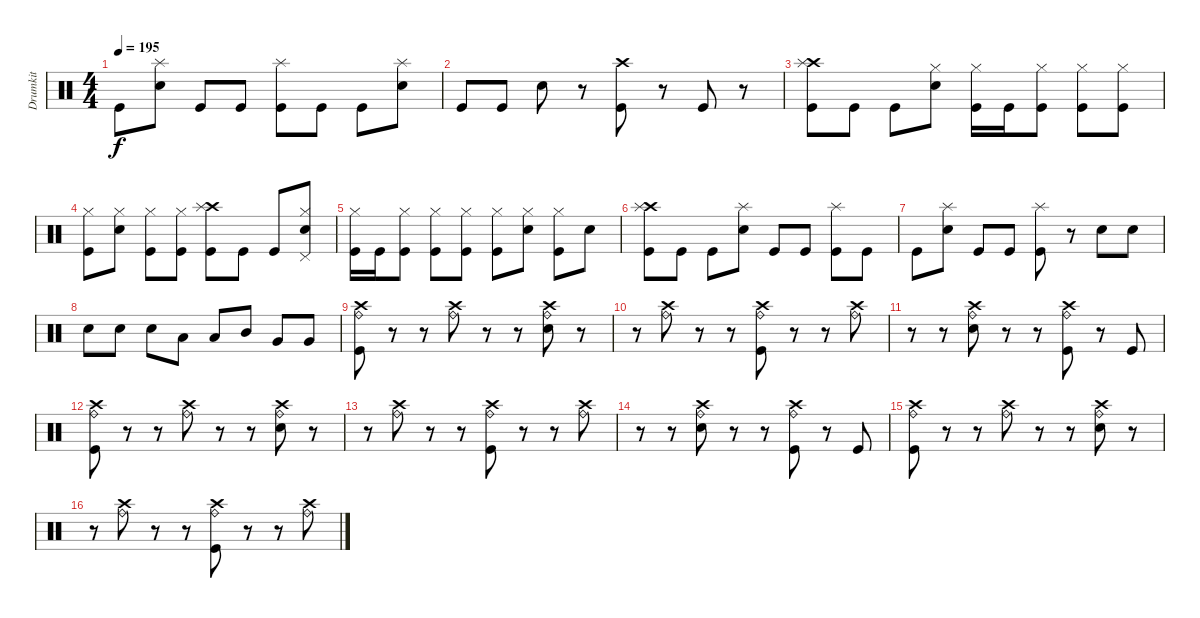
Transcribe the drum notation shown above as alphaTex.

\track ("Drumkit" "Drumkit") {instrument percussion}
\staff {score}
\articulation defaults
\ts (4 4)
\tempo 195
\clef neutral
\ks c "Kick (hit)".8{dy f}
("Snare (hit) 2" "Splash (hit)").8 "Kick (hit)".8 "Kick (hit)".8 ("Kick (hit)" "Splash (hit)").8 "Kick (hit)".8 "Kick (hit)".8 ("Snare (hit) 2" "Splash (hit)").8 |
"Kick (hit)".8 "Kick (hit)".8 "Snare (hit) 2".8 r.8 ("Kick (hit)" "Crash high (hit)").8 r.8 "Kick (hit)".8 r.8 |
("Kick (hit)" "Crash high (hit)" "Splash (hit)").8 "Kick (hit)".8 "Kick (hit)".8 ("Snare (hit) 2" "Hi-Hat (closed)").8 ("Kick (hit)" "Hi-Hat (closed)").16 "Kick (hit)".16 ("Kick (hit)" "Hi-Hat (closed)").8 ("Kick (hit)" "Hi-Hat (closed)").8 ("Kick (hit)" "Hi-Hat (closed)").8 |
("Kick (hit)" "Hi-Hat (closed)").8 ("Snare (hit) 2" "Hi-Hat (closed)").8 ("Kick (hit)" "Hi-Hat (closed)").8 ("Kick (hit)" "Hi-Hat (closed)").8 ("Kick (hit)" "Crash high (hit)" "Splash (hit)").8 "Kick (hit)".8 "Kick (hit)".8 ("Snare (hit) 2" "Pedal Hi-Hat (hit)" "Hi-Hat (closed)").8 |
("Kick (hit)" "Hi-Hat (closed)").16 "Kick (hit)".16 ("Kick (hit)" "Hi-Hat (closed)").8 ("Kick (hit)" "Hi-Hat (closed)").8 ("Kick (hit)" "Hi-Hat (closed)").8 ("Kick (hit)" "Hi-Hat (closed)").8 ("Snare (hit) 2" "Hi-Hat (closed)").8 ("Kick (hit)" "Hi-Hat (closed)").8 "Snare (hit) 2".8 |
("Kick (hit)" "Crash high (hit)" "Splash (hit)").8 "Kick (hit)".8 "Kick (hit)".8 ("Snare (hit) 2" "Splash (hit)").8 "Kick (hit)".8 "Kick (hit)".8 ("Kick (hit)" "Splash (hit)").8 "Kick (hit)".8 |
"Kick (hit)".8 ("Snare (hit) 2" "Splash (hit)").8 "Kick (hit)".8 "Kick (hit)".8 ("Kick (hit)" "Splash (hit)").8 r.8 "Snare (hit) 2".8 "Snare (hit) 2".8 |
"Snare (hit) 2".8 "Snare (hit) 2".8 "Snare (hit) 2".8 "Low Floor Tom (hit)".8 "Low Floor Tom (hit)".8 "Mid Tom (hit)".8 "Very Low Tom (hit)".8 "Very Low Tom (hit)".8 |
("Kick (hit)" "Crash high (hit)" "Ride (bell)").8 r.8 r.8 ("Crash high (hit)" "Ride (bell)").8 r.8 r.8 ("Snare (hit) 2" "Crash high (hit)" "Ride (bell)").8 r.8 |
r.8 ("Crash high (hit)" "Ride (bell)").8 r.8 r.8 ("Kick (hit)" "Crash high (hit)" "Ride (bell)").8 r.8 r.8 ("Crash high (hit)" "Ride (bell)").8 |
r.8 r.8 ("Snare (hit) 2" "Ride (bell)" "Crash high (hit)").8 r.8 r.8 ("Kick (hit)" "Ride (bell)" "Crash high (hit)").8 r.8 "Kick (hit)".8 |
("Kick (hit)" "Ride (bell)" "Crash high (hit)").8 r.8 r.8 ("Ride (bell)" "Crash high (hit)").8 r.8 r.8 ("Snare (hit) 2" "Ride (bell)" "Crash high (hit)").8 r.8 |
r.8 ("Ride (bell)" "Crash high (hit)").8 r.8 r.8 ("Kick (hit)" "Ride (bell)" "Crash high (hit)").8 r.8 r.8 ("Ride (bell)" "Crash high (hit)").8 |
r.8 r.8 ("Snare (hit) 2" "Ride (bell)" "Crash high (hit)").8 r.8 r.8 ("Kick (hit)" "Ride (bell)" "Crash high (hit)").8 r.8 "Kick (hit)".8 |
("Kick (hit)" "Ride (bell)" "Crash high (hit)").8 r.8 r.8 ("Ride (bell)" "Crash high (hit)").8 r.8 r.8 ("Snare (hit) 2" "Ride (bell)" "Crash high (hit)").8 r.8 |
r.8 ("Ride (bell)" "Crash high (hit)").8 r.8 r.8 ("Kick (hit)" "Ride (bell)" "Crash high (hit)").8 r.8 r.8 ("Ride (bell)" "Crash high (hit)").8
